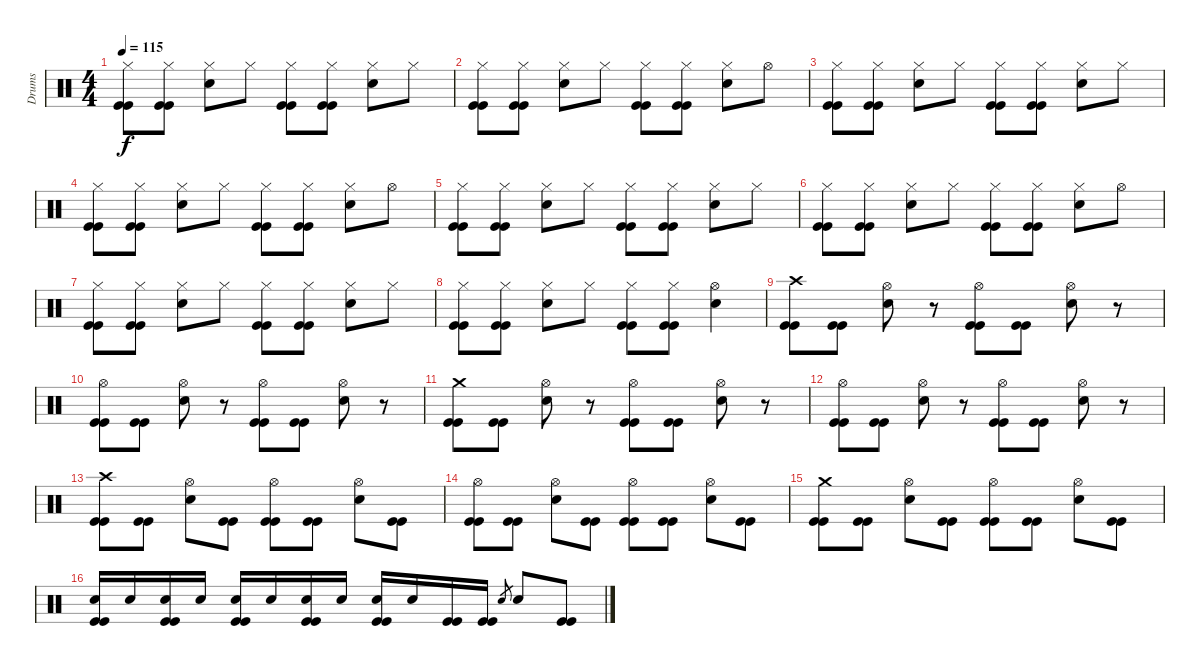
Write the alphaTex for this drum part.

\track ("Drums" "Drums") {instrument percussion}
\staff {score}
\articulation defaults
\ts (4 4)
\tempo 115
\clef neutral
\ks c
("Hi-Hat (closed)" "Kick (hit)" "Kick (hit)").8{dy f} ("Hi-Hat (closed)" "Kick (hit)" "Kick (hit)").8 ("Hi-Hat (closed)" "Electric Snare (hit)").8 "Hi-Hat (closed)".8 ("Hi-Hat (closed)" "Kick (hit)" "Kick (hit)").8 ("Hi-Hat (closed)" "Kick (hit)" "Kick (hit)").8 ("Hi-Hat (closed)" "Electric Snare (hit)").8 "Hi-Hat (closed)".8 |
("Hi-Hat (closed)" "Kick (hit)" "Kick (hit)").8 ("Hi-Hat (closed)" "Kick (hit)" "Kick (hit)").8 ("Hi-Hat (closed)" "Electric Snare (hit)").8 "Hi-Hat (closed)".8 ("Hi-Hat (closed)" "Kick (hit)" "Kick (hit)").8 ("Hi-Hat (closed)" "Kick (hit)" "Kick (hit)").8 ("Hi-Hat (closed)" "Electric Snare (hit)").8 "Hi-Hat (open)".8 |
("Hi-Hat (closed)" "Kick (hit)" "Kick (hit)").8 ("Hi-Hat (closed)" "Kick (hit)" "Kick (hit)").8 ("Hi-Hat (closed)" "Electric Snare (hit)").8 "Hi-Hat (closed)".8 ("Hi-Hat (closed)" "Kick (hit)" "Kick (hit)").8 ("Hi-Hat (closed)" "Kick (hit)" "Kick (hit)").8 ("Hi-Hat (closed)" "Electric Snare (hit)").8 "Hi-Hat (closed)".8 |
("Hi-Hat (closed)" "Kick (hit)" "Kick (hit)").8 ("Hi-Hat (closed)" "Kick (hit)" "Kick (hit)").8 ("Hi-Hat (closed)" "Electric Snare (hit)").8 "Hi-Hat (closed)".8 ("Hi-Hat (closed)" "Kick (hit)" "Kick (hit)").8 ("Hi-Hat (closed)" "Kick (hit)" "Kick (hit)").8 ("Hi-Hat (closed)" "Electric Snare (hit)").8 "Hi-Hat (open)".8 |
("Hi-Hat (closed)" "Kick (hit)" "Kick (hit)").8 ("Hi-Hat (closed)" "Kick (hit)" "Kick (hit)").8 ("Hi-Hat (closed)" "Electric Snare (hit)").8 "Hi-Hat (closed)".8 ("Hi-Hat (closed)" "Kick (hit)" "Kick (hit)").8 ("Hi-Hat (closed)" "Kick (hit)" "Kick (hit)").8 ("Hi-Hat (closed)" "Electric Snare (hit)").8 "Hi-Hat (closed)".8 |
("Hi-Hat (closed)" "Kick (hit)" "Kick (hit)").8 ("Hi-Hat (closed)" "Kick (hit)" "Kick (hit)").8 ("Hi-Hat (closed)" "Electric Snare (hit)").8 "Hi-Hat (closed)".8 ("Hi-Hat (closed)" "Kick (hit)" "Kick (hit)").8 ("Hi-Hat (closed)" "Kick (hit)" "Kick (hit)").8 ("Hi-Hat (closed)" "Electric Snare (hit)").8 "Hi-Hat (open)".8 |
("Hi-Hat (closed)" "Kick (hit)" "Kick (hit)").8 ("Hi-Hat (closed)" "Kick (hit)" "Kick (hit)").8 ("Hi-Hat (closed)" "Electric Snare (hit)").8 "Hi-Hat (closed)".8 ("Hi-Hat (closed)" "Kick (hit)" "Kick (hit)").8 ("Hi-Hat (closed)" "Kick (hit)" "Kick (hit)").8 ("Hi-Hat (closed)" "Electric Snare (hit)").8 "Hi-Hat (closed)".8 |
("Hi-Hat (closed)" "Kick (hit)" "Kick (hit)").8 ("Hi-Hat (closed)" "Kick (hit)" "Kick (hit)").8 ("Hi-Hat (closed)" "Electric Snare (hit)").8 "Hi-Hat (closed)".8 ("Hi-Hat (closed)" "Kick (hit)" "Kick (hit)").8 ("Hi-Hat (closed)" "Kick (hit)" "Kick (hit)").8 ("Hi-Hat (open)" "Electric Snare (hit)").4 |
("Crash high (hit)" "Kick (hit)" "Kick (hit)").8 ("Kick (hit)" "Kick (hit)").8 ("Hi-Hat (open)" "Electric Snare (hit)").8 r.8 ("Hi-Hat (open)" "Kick (hit)" "Kick (hit)").8 ("Kick (hit)" "Kick (hit)").8 ("Hi-Hat (open)" "Electric Snare (hit)").8 r.8 |
("Hi-Hat (open)" "Kick (hit)" "Kick (hit)").8 ("Kick (hit)" "Kick (hit)").8 ("Hi-Hat (open)" "Electric Snare (hit)").8 r.8 ("Hi-Hat (open)" "Kick (hit)" "Kick (hit)").8 ("Kick (hit)" "Kick (hit)").8 ("Hi-Hat (open)" "Electric Snare (hit)").8 r.8 |
("Crash medium (hit)" "Kick (hit)" "Kick (hit)").8 ("Kick (hit)" "Kick (hit)").8 ("Hi-Hat (open)" "Electric Snare (hit)").8 r.8 ("Hi-Hat (open)" "Kick (hit)" "Kick (hit)").8 ("Kick (hit)" "Kick (hit)").8 ("Hi-Hat (open)" "Electric Snare (hit)").8 r.8 |
("Hi-Hat (open)" "Kick (hit)" "Kick (hit)").8 ("Kick (hit)" "Kick (hit)").8 ("Hi-Hat (open)" "Electric Snare (hit)").8 r.8 ("Hi-Hat (open)" "Kick (hit)" "Kick (hit)").8 ("Kick (hit)" "Kick (hit)").8 ("Hi-Hat (open)" "Electric Snare (hit)").8 r.8 |
("Crash high (hit)" "Kick (hit)" "Kick (hit)").8 ("Kick (hit)" "Kick (hit)").8 ("Hi-Hat (open)" "Electric Snare (hit)").8 ("Kick (hit)" "Kick (hit)").8 ("Hi-Hat (open)" "Kick (hit)" "Kick (hit)").8 ("Kick (hit)" "Kick (hit)").8 ("Hi-Hat (open)" "Electric Snare (hit)").8 ("Kick (hit)" "Kick (hit)").8 |
("Hi-Hat (open)" "Kick (hit)" "Kick (hit)").8 ("Kick (hit)" "Kick (hit)").8 ("Hi-Hat (open)" "Electric Snare (hit)").8 ("Kick (hit)" "Kick (hit)").8 ("Hi-Hat (open)" "Kick (hit)" "Kick (hit)").8 ("Kick (hit)" "Kick (hit)").8 ("Hi-Hat (open)" "Electric Snare (hit)").8 ("Kick (hit)" "Kick (hit)").8 |
("Crash medium (hit)" "Kick (hit)" "Kick (hit)").8 ("Kick (hit)" "Kick (hit)").8 ("Hi-Hat (open)" "Electric Snare (hit)").8 ("Kick (hit)" "Kick (hit)").8 ("Hi-Hat (open)" "Kick (hit)" "Kick (hit)").8 ("Kick (hit)" "Kick (hit)").8 ("Hi-Hat (open)" "Electric Snare (hit)").8 ("Kick (hit)" "Kick (hit)").8 |
("Electric Snare (hit)" "Kick (hit)" "Kick (hit)").16 "Electric Snare (hit)".16 ("Electric Snare (hit)" "Kick (hit)" "Kick (hit)").16 "Electric Snare (hit)".16 ("Electric Snare (hit)" "Kick (hit)" "Kick (hit)").16 "Electric Snare (hit)".16 ("Electric Snare (hit)" "Kick (hit)" "Kick (hit)").16 "Electric Snare (hit)".16 ("Electric Snare (hit)" "Kick (hit)" "Kick (hit)").16 "Electric Snare (hit)".16 ("Kick (hit)" "Kick (hit)").16 ("Kick (hit)" "Kick (hit)").16 "Electric Snare (hit)".8{gr} "Electric Snare (hit)".8 ("Kick (hit)" "Kick (hit)").8
